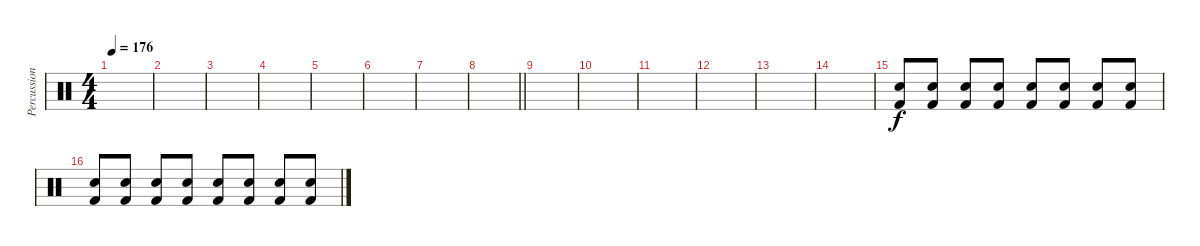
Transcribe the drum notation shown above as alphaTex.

\track ("Percussion" "Percussion") {instrument percussion}
\staff {score}
\articulation defaults
\ts (4 4)
\tempo 176
\clef neutral
\ks c
|
|
|
|
|
|
|
\barLineRight lightlight
|
|
|
|
|
|
|
("Electric Snare (hit)" "Kick (hit) 2").8 ("Electric Snare (hit)" "Kick (hit) 2").8 ("Electric Snare (hit)" "Kick (hit) 2").8 ("Electric Snare (hit)" "Kick (hit) 2").8 ("Electric Snare (hit)" "Kick (hit) 2").8 ("Electric Snare (hit)" "Kick (hit) 2").8 ("Electric Snare (hit)" "Kick (hit) 2").8 ("Electric Snare (hit)" "Kick (hit) 2").8 |
("Electric Snare (hit)" "Kick (hit) 2").8 ("Electric Snare (hit)" "Kick (hit) 2").8 ("Electric Snare (hit)" "Kick (hit) 2").8 ("Electric Snare (hit)" "Kick (hit) 2").8 ("Electric Snare (hit)" "Kick (hit) 2").8 ("Electric Snare (hit)" "Kick (hit) 2").8 ("Electric Snare (hit)" "Kick (hit) 2").8 ("Electric Snare (hit)" "Kick (hit) 2").8
